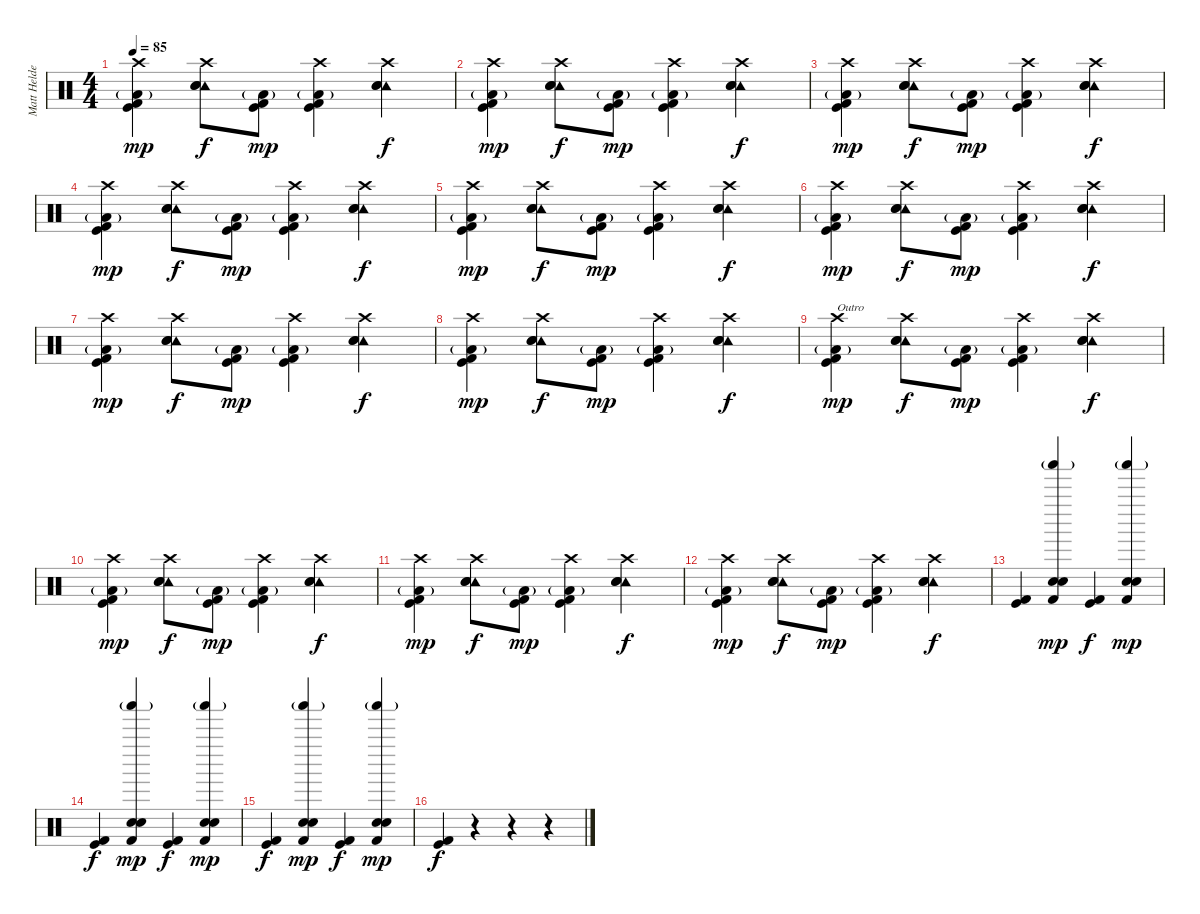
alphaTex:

\track ("Matt Helders" "Matt Helde") {instrument percussion}
\staff {score}
\articulation defaults
\ts (4 4)
\tempo 85
\clef neutral
\ks c
("Crash high (hit)" "Low Floor Tom (hit)"{g} "Kick (hit) 2" "Kick (hit)").4{dy mp} ("Crash high (hit)" "Tambourine (hit)" "Hand Clap (hit)" "Snare (hit) 2").8{dy f} ("Low Floor Tom (hit)"{g} "Kick (hit) 2" "Kick (hit)").8{dy mp} ("Crash high (hit)" "Low Floor Tom (hit)"{g} "Kick (hit) 2" "Kick (hit)").4 ("Crash high (hit)" "Tambourine (hit)" "Hand Clap (hit)" "Snare (hit) 2").4{dy f} |
("Crash high (hit)" "Low Floor Tom (hit)"{g} "Kick (hit) 2" "Kick (hit)").4{dy mp} ("Crash high (hit)" "Tambourine (hit)" "Hand Clap (hit)" "Snare (hit) 2").8{dy f} ("Low Floor Tom (hit)"{g} "Kick (hit) 2" "Kick (hit)").8{dy mp} ("Crash high (hit)" "Low Floor Tom (hit)"{g} "Kick (hit) 2" "Kick (hit)").4 ("Crash high (hit)" "Tambourine (hit)" "Hand Clap (hit)" "Snare (hit) 2").4{dy f} |
("Crash high (hit)" "Low Floor Tom (hit)"{g} "Kick (hit) 2" "Kick (hit)").4{dy mp} ("Crash high (hit)" "Tambourine (hit)" "Hand Clap (hit)" "Snare (hit) 2").8{dy f} ("Low Floor Tom (hit)"{g} "Kick (hit) 2" "Kick (hit)").8{dy mp} ("Crash high (hit)" "Low Floor Tom (hit)"{g} "Kick (hit) 2" "Kick (hit)").4 ("Crash high (hit)" "Tambourine (hit)" "Hand Clap (hit)" "Snare (hit) 2").4{dy f} |
("Crash high (hit)" "Low Floor Tom (hit)"{g} "Kick (hit) 2" "Kick (hit)").4{dy mp} ("Crash high (hit)" "Tambourine (hit)" "Hand Clap (hit)" "Snare (hit) 2").8{dy f} ("Low Floor Tom (hit)"{g} "Kick (hit) 2" "Kick (hit)").8{dy mp} ("Crash high (hit)" "Low Floor Tom (hit)"{g} "Kick (hit) 2" "Kick (hit)").4 ("Crash high (hit)" "Tambourine (hit)" "Hand Clap (hit)" "Snare (hit) 2").4{dy f} |
("Crash high (hit)" "Low Floor Tom (hit)"{g} "Kick (hit) 2" "Kick (hit)").4{dy mp} ("Crash high (hit)" "Tambourine (hit)" "Hand Clap (hit)" "Snare (hit) 2").8{dy f} ("Low Floor Tom (hit)"{g} "Kick (hit) 2" "Kick (hit)").8{dy mp} ("Crash high (hit)" "Low Floor Tom (hit)"{g} "Kick (hit) 2" "Kick (hit)").4 ("Crash high (hit)" "Tambourine (hit)" "Hand Clap (hit)" "Snare (hit) 2").4{dy f} |
("Crash high (hit)" "Low Floor Tom (hit)"{g} "Kick (hit) 2" "Kick (hit)").4{dy mp} ("Crash high (hit)" "Tambourine (hit)" "Hand Clap (hit)" "Snare (hit) 2").8{dy f} ("Low Floor Tom (hit)"{g} "Kick (hit) 2" "Kick (hit)").8{dy mp} ("Crash high (hit)" "Low Floor Tom (hit)"{g} "Kick (hit) 2" "Kick (hit)").4 ("Crash high (hit)" "Tambourine (hit)" "Hand Clap (hit)" "Snare (hit) 2").4{dy f} |
("Crash high (hit)" "Low Floor Tom (hit)"{g} "Kick (hit) 2" "Kick (hit)").4{dy mp} ("Crash high (hit)" "Tambourine (hit)" "Hand Clap (hit)" "Snare (hit) 2").8{dy f} ("Low Floor Tom (hit)"{g} "Kick (hit) 2" "Kick (hit)").8{dy mp} ("Crash high (hit)" "Low Floor Tom (hit)"{g} "Kick (hit) 2" "Kick (hit)").4 ("Crash high (hit)" "Tambourine (hit)" "Hand Clap (hit)" "Snare (hit) 2").4{dy f} |
("Crash high (hit)" "Low Floor Tom (hit)"{g} "Kick (hit) 2" "Kick (hit)").4{dy mp} ("Crash high (hit)" "Tambourine (hit)" "Hand Clap (hit)" "Snare (hit) 2").8{dy f} ("Low Floor Tom (hit)"{g} "Kick (hit) 2" "Kick (hit)").8{dy mp} ("Crash high (hit)" "Low Floor Tom (hit)"{g} "Kick (hit) 2" "Kick (hit)").4 ("Crash high (hit)" "Tambourine (hit)" "Hand Clap (hit)" "Snare (hit) 2").4{dy f} |
("Crash high (hit)" "Low Floor Tom (hit)"{g} "Kick (hit) 2" "Kick (hit)").4{txt "Outro" dy mp} ("Crash high (hit)" "Tambourine (hit)" "Hand Clap (hit)" "Snare (hit) 2").8{dy f} ("Low Floor Tom (hit)"{g} "Kick (hit) 2" "Kick (hit)").8{dy mp} ("Crash high (hit)" "Low Floor Tom (hit)"{g} "Kick (hit) 2" "Kick (hit)").4 ("Crash high (hit)" "Tambourine (hit)" "Hand Clap (hit)" "Snare (hit) 2").4{dy f} |
("Crash high (hit)" "Low Floor Tom (hit)"{g} "Kick (hit) 2" "Kick (hit)").4{dy mp} ("Crash high (hit)" "Tambourine (hit)" "Hand Clap (hit)" "Snare (hit) 2").8{dy f} ("Low Floor Tom (hit)"{g} "Kick (hit) 2" "Kick (hit)").8{dy mp} ("Crash high (hit)" "Low Floor Tom (hit)"{g} "Kick (hit) 2" "Kick (hit)").4 ("Crash high (hit)" "Tambourine (hit)" "Hand Clap (hit)" "Snare (hit) 2").4{dy f} |
("Crash high (hit)" "Low Floor Tom (hit)"{g} "Kick (hit) 2" "Kick (hit)").4{dy mp} ("Crash high (hit)" "Tambourine (hit)" "Hand Clap (hit)" "Snare (hit) 2").8{dy f} ("Low Floor Tom (hit)"{g} "Kick (hit) 2" "Kick (hit)").8{dy mp} ("Crash high (hit)" "Low Floor Tom (hit)"{g} "Kick (hit) 2" "Kick (hit)").4 ("Crash high (hit)" "Tambourine (hit)" "Hand Clap (hit)" "Snare (hit) 2").4{dy f} |
("Crash high (hit)" "Low Floor Tom (hit)"{g} "Kick (hit) 2" "Kick (hit)").4{dy mp} ("Crash high (hit)" "Tambourine (hit)" "Hand Clap (hit)" "Snare (hit) 2").8{dy f} ("Low Floor Tom (hit)"{g} "Kick (hit) 2" "Kick (hit)").8{dy mp} ("Crash high (hit)" "Low Floor Tom (hit)"{g} "Kick (hit) 2" "Kick (hit)").4 ("Crash high (hit)" "Tambourine (hit)" "Hand Clap (hit)" "Snare (hit) 2").4{dy f} |
("Kick (hit)" "Kick (hit) 2").4 ("Hand Clap (hit)" "Shaker (hit)"{g} "Electric Snare (hit)" "Kick (hit) 2").4{dy mp} ("Kick (hit)" "Kick (hit) 2").4{dy f} ("Hand Clap (hit)" "Shaker (hit)"{g} "Electric Snare (hit)" "Kick (hit) 2").4{dy mp} |
("Kick (hit)" "Kick (hit) 2").4{dy f} ("Hand Clap (hit)" "Shaker (hit)"{g} "Electric Snare (hit)" "Kick (hit) 2").4{dy mp} ("Kick (hit)" "Kick (hit) 2").4{dy f} ("Hand Clap (hit)" "Shaker (hit)"{g} "Electric Snare (hit)" "Kick (hit) 2").4{dy mp} |
("Kick (hit)" "Kick (hit) 2").4{dy f} ("Hand Clap (hit)" "Shaker (hit)"{g} "Electric Snare (hit)" "Kick (hit) 2").4{dy mp} ("Kick (hit)" "Kick (hit) 2").4{dy f} ("Hand Clap (hit)" "Shaker (hit)"{g} "Electric Snare (hit)" "Kick (hit) 2").4{dy mp} |
("Kick (hit)" "Kick (hit) 2").4{dy f} r.4 r.4 r.4
